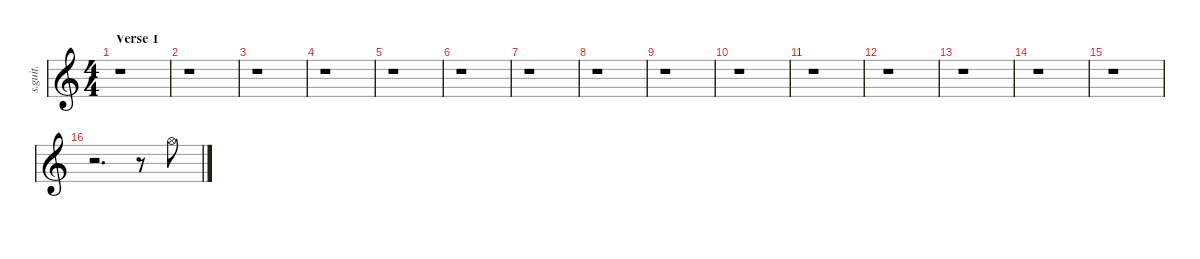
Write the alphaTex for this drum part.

\defaultSystemsLayout 4
\hideDynamics
\bracketExtendMode nobrackets
\track ("Tre Cool" "s.guit.") {instrument percussion}
\staff {score}
\articulation defaults
\ts (4 4)
\beaming (8 2 2 2 2)
\section ("" "Verse 1")
\tempo (175 hide)
\clef g2
\ks c
r.1{dy f} |
r.1 |
r.1 |
r.1 |
r.1 |
r.1 |
r.1 |
r.1 |
r.1 |
r.1 |
r.1 |
r.1 |
r.1 |
r.1 |
r.1 |
r.2{d} r.8 "Hi-Hat (open)".8{lyrics (0 "") lyrics (1 "") lyrics (2 "") lyrics (3 "") lyrics (4 "")}
